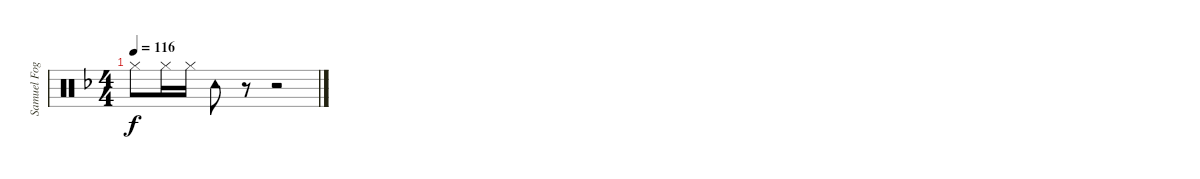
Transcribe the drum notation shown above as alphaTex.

\track ("Samuel Fogarino" "Samuel Fog") {instrument percussion}
\staff {score}
\articulation defaults
\ts (4 4)
\tempo 116
\clef neutral
\ks f "Hi-Hat (closed)".8{dy f} "Hi-Hat (closed)".16 "Hi-Hat (closed)".16 "Tambourine (hit)".8
r.8 r.2
